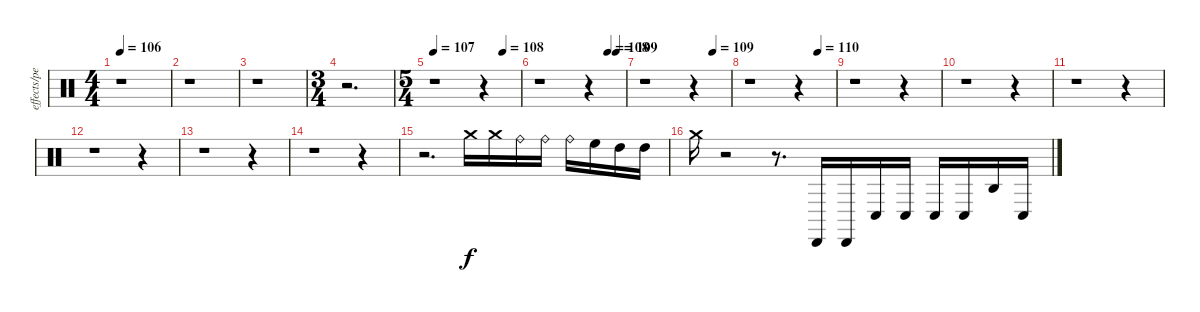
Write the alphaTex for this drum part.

\track ("effects/percussion" "effects/pe") {instrument percussion}
\staff {score}
\articulation defaults
\ts (4 4)
\tempo 106
\clef neutral
\ks c
r.1{dy f} |
r.1 |
r.1 |
\ts (3 4)
r.2{d} |
\ts (5 4)
\tempo 107
\tempo (108 0.8)
r.1 r.4 |
\tempo (108 0.8)
\tempo (109 0.9)
r.1 r.4 |
\tempo (109 0.8)
r.1 r.4 |
\tempo (110 0.8)
r.1 r.4 |
r.1 r.4 |
r.1 r.4 |
r.1 r.4 |
r.1 r.4 |
r.1 r.4 |
r.1 r.4 |
r.2{d} "Crash medium (hit)".16 "Crash medium (hit)".16 "Ride (bell)".16 "Ride (bell)".16 "Ride (bell)".16 "High Floor Tom (hit)".16 "High Tom (hit)".16 "High Tom (hit)".16 |
"Crash medium (hit)".16 r.2 r.8{d} "Cabasa (hit)".16 "Cabasa (hit)".16 "Conga low (hit)".16 "Conga low (hit)".16 "Conga low (hit)".16 "Conga low (hit)".16 "Agogo high (hit)".16 "Conga low (hit)".16
